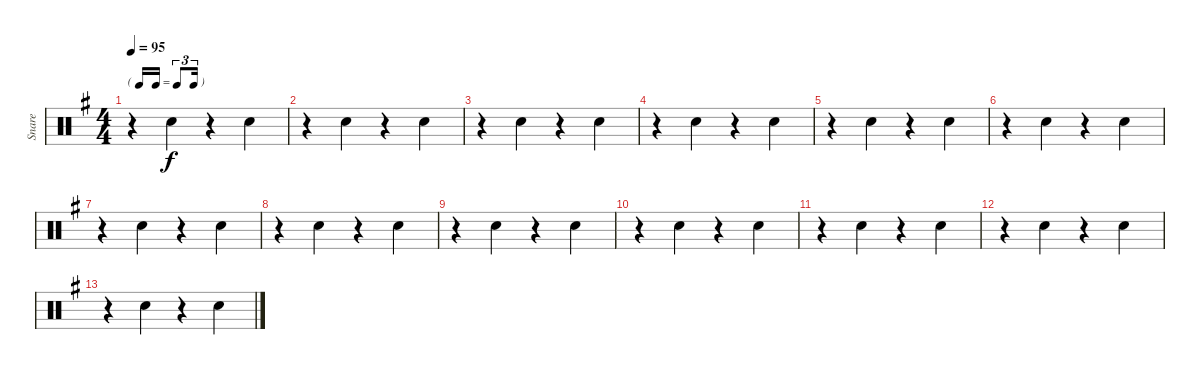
\track ("Snare" "Snare") {instrument percussion}
\staff {score}
\articulation defaults
\ts (4 4)
\tf triplet16th
\tempo 95
\clef neutral
\ks eminor
r.4{dy f} "Snare (hit) 2".4 r.4 "Snare (hit) 2".4 |
r.4 "Snare (hit) 2".4 r.4 "Snare (hit) 2".4 |
r.4 "Snare (hit) 2".4 r.4 "Snare (hit) 2".4 |
r.4 "Snare (hit) 2".4 r.4 "Snare (hit) 2".4 |
r.4 "Snare (hit) 2".4 r.4 "Snare (hit) 2".4 |
r.4 "Snare (hit) 2".4 r.4 "Snare (hit) 2".4 |
r.4 "Snare (hit) 2".4 r.4 "Snare (hit) 2".4 |
r.4 "Snare (hit) 2".4 r.4 "Snare (hit) 2".4 |
r.4 "Snare (hit) 2".4 r.4 "Snare (hit) 2".4 |
r.4 "Snare (hit) 2".4 r.4 "Snare (hit) 2".4 |
r.4 "Snare (hit) 2".4 r.4 "Snare (hit) 2".4 |
r.4 "Snare (hit) 2".4 r.4 "Snare (hit) 2".4 |
r.4 "Snare (hit) 2".4 r.4 "Snare (hit) 2".4
